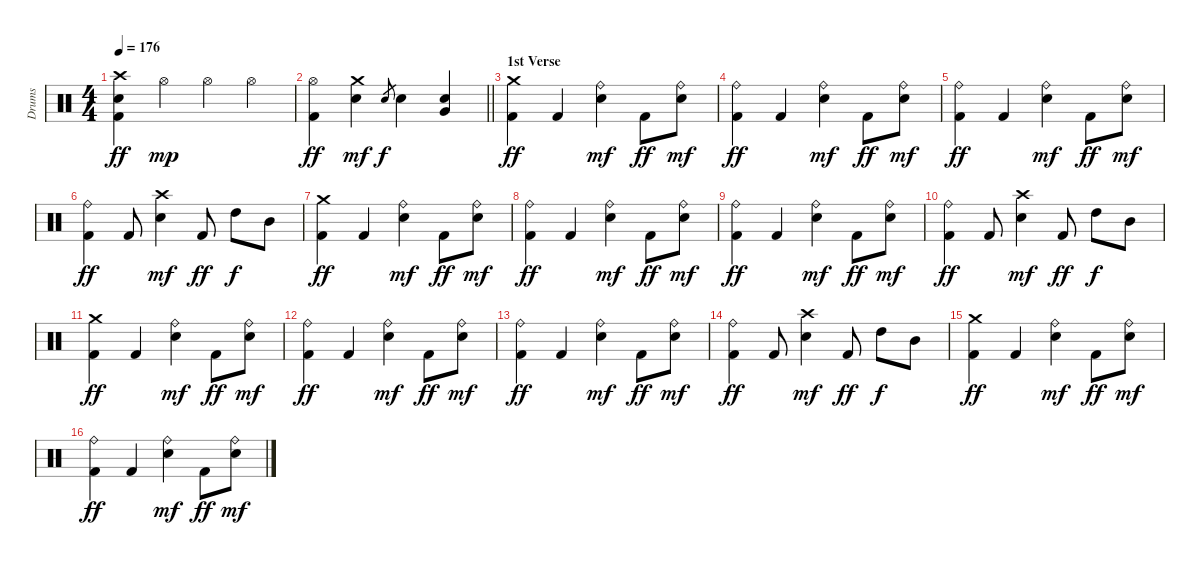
\track ("Drums" "Drums") {instrument percussion}
\staff {score}
\articulation defaults
\ts (4 4)
\tempo 176
\clef neutral
\ks c
("Crash high (hit)" "Electric Snare (hit)" "Kick (hit) 2").4{dy ff} "Hi-Hat (open)".4{dy mp} "Hi-Hat (open)".4 "Hi-Hat (open)".4 |
\barLineRight lightlight
("Hi-Hat (open)" "Kick (hit) 2").4{dy ff} ("Crash medium (hit)" "Electric Snare (hit)").4{dy mf} "Electric Snare (hit)".8{gr dy f} "Electric Snare (hit)".4 ("Very Low Tom (hit)" "Electric Snare (hit)").4 |
\section ("" "1st Verse")
("Crash medium (hit)" "Kick (hit) 2").4{dy ff} "Kick (hit) 2".4 ("Ride (bell)" "Electric Snare (hit)").4{dy mf} "Kick (hit) 2".8{dy ff} ("Ride (bell)" "Electric Snare (hit)").8{dy mf} |
("Ride (bell)" "Kick (hit) 2").4{dy ff} "Kick (hit) 2".4 ("Ride (bell)" "Electric Snare (hit)").4{dy mf} "Kick (hit) 2".8{dy ff} ("Ride (bell)" "Electric Snare (hit)").8{dy mf} |
("Ride (bell)" "Kick (hit) 2").4{dy ff} "Kick (hit) 2".4 ("Ride (bell)" "Electric Snare (hit)").4{dy mf} "Kick (hit) 2".8{dy ff} ("Ride (bell)" "Electric Snare (hit)").8{dy mf} |
("Ride (bell)" "Kick (hit) 2").4{dy ff} "Kick (hit) 2".8 ("Crash high (hit)" "Electric Snare (hit)").4{dy mf} "Kick (hit) 2".8{dy ff} "High Tom (hit)".8{dy f} "Mid Tom (hit)".8 |
("Crash medium (hit)" "Kick (hit) 2").4{dy ff} "Kick (hit) 2".4 ("Ride (bell)" "Electric Snare (hit)").4{dy mf} "Kick (hit) 2".8{dy ff} ("Ride (bell)" "Electric Snare (hit)").8{dy mf} |
("Ride (bell)" "Kick (hit) 2").4{dy ff} "Kick (hit) 2".4 ("Ride (bell)" "Electric Snare (hit)").4{dy mf} "Kick (hit) 2".8{dy ff} ("Ride (bell)" "Electric Snare (hit)").8{dy mf} |
("Ride (bell)" "Kick (hit) 2").4{dy ff} "Kick (hit) 2".4 ("Ride (bell)" "Electric Snare (hit)").4{dy mf} "Kick (hit) 2".8{dy ff} ("Ride (bell)" "Electric Snare (hit)").8{dy mf} |
("Ride (bell)" "Kick (hit) 2").4{dy ff} "Kick (hit) 2".8 ("Crash high (hit)" "Electric Snare (hit)").4{dy mf} "Kick (hit) 2".8{dy ff} "High Tom (hit)".8{dy f} "Mid Tom (hit)".8 |
("Crash medium (hit)" "Kick (hit) 2").4{dy ff} "Kick (hit) 2".4 ("Ride (bell)" "Electric Snare (hit)").4{dy mf} "Kick (hit) 2".8{dy ff} ("Ride (bell)" "Electric Snare (hit)").8{dy mf} |
("Ride (bell)" "Kick (hit) 2").4{dy ff} "Kick (hit) 2".4 ("Ride (bell)" "Electric Snare (hit)").4{dy mf} "Kick (hit) 2".8{dy ff} ("Ride (bell)" "Electric Snare (hit)").8{dy mf} |
("Ride (bell)" "Kick (hit) 2").4{dy ff} "Kick (hit) 2".4 ("Ride (bell)" "Electric Snare (hit)").4{dy mf} "Kick (hit) 2".8{dy ff} ("Ride (bell)" "Electric Snare (hit)").8{dy mf} |
("Ride (bell)" "Kick (hit) 2").4{dy ff} "Kick (hit) 2".8 ("Crash high (hit)" "Electric Snare (hit)").4{dy mf} "Kick (hit) 2".8{dy ff} "High Tom (hit)".8{dy f} "Mid Tom (hit)".8 |
("Crash medium (hit)" "Kick (hit) 2").4{dy ff} "Kick (hit) 2".4 ("Ride (bell)" "Electric Snare (hit)").4{dy mf} "Kick (hit) 2".8{dy ff} ("Ride (bell)" "Electric Snare (hit)").8{dy mf} |
("Ride (bell)" "Kick (hit) 2").4{dy ff} "Kick (hit) 2".4 ("Ride (bell)" "Electric Snare (hit)").4{dy mf} "Kick (hit) 2".8{dy ff} ("Ride (bell)" "Electric Snare (hit)").8{dy mf}
